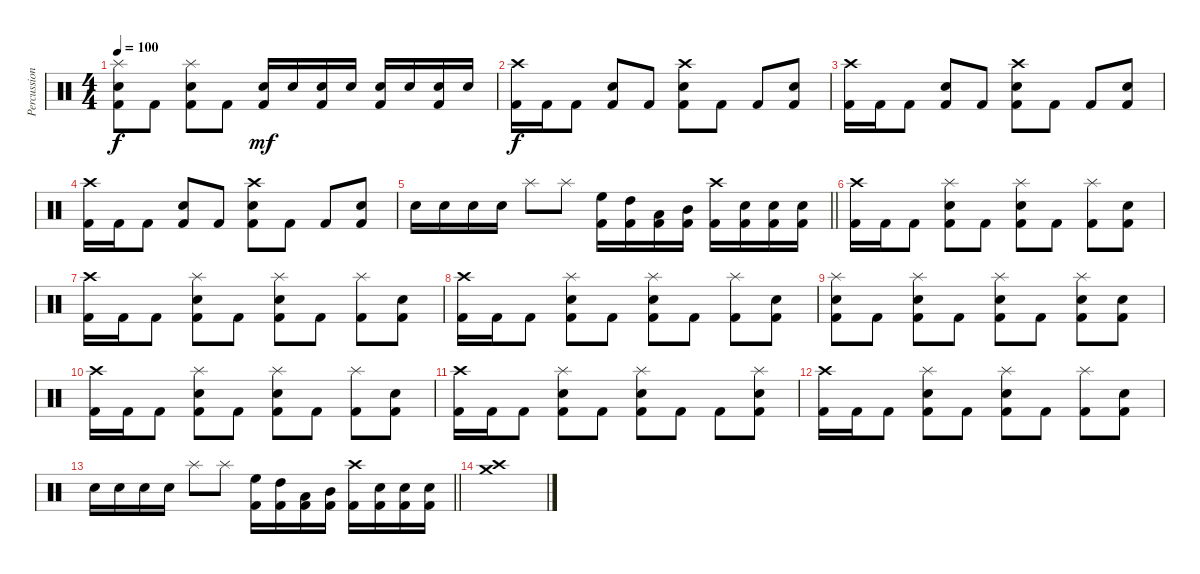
\track ("Percussion" "Percussion") {instrument percussion}
\staff {score}
\articulation defaults
\ts (4 4)
\tempo 100
\clef neutral
\ks c
("Splash (hit)" "Snare (hit) 2" "Kick (hit) 2").8{dy f} "Kick (hit) 2".8 ("Splash (hit)" "Snare (hit) 2" "Kick (hit) 2").8 "Kick (hit) 2".8 ("Snare (hit) 2" "Kick (hit) 2").16{dy mf} "Snare (hit) 2".16 ("Snare (hit) 2" "Kick (hit) 2").16 "Snare (hit) 2".16 ("Snare (hit) 2" "Kick (hit) 2").16 "Snare (hit) 2".16 ("Snare (hit) 2" "Kick (hit) 2").16 "Snare (hit) 2".16 |
("Crash high (hit)" "Kick (hit) 2").16{dy f} "Kick (hit) 2".16 "Kick (hit) 2".8 ("Snare (hit) 2" "Kick (hit) 2").8 "Kick (hit) 2".8 ("Crash high (hit)" "Snare (hit) 2" "Kick (hit) 2").8 "Kick (hit) 2".8 "Kick (hit) 2".8 ("Snare (hit) 2" "Kick (hit) 2").8 |
("Crash high (hit)" "Kick (hit) 2").16 "Kick (hit) 2".16 "Kick (hit) 2".8 ("Snare (hit) 2" "Kick (hit) 2").8 "Kick (hit) 2".8 ("Crash high (hit)" "Snare (hit) 2" "Kick (hit) 2").8 "Kick (hit) 2".8 "Kick (hit) 2".8 ("Snare (hit) 2" "Kick (hit) 2").8 |
("Crash high (hit)" "Kick (hit) 2").16 "Kick (hit) 2".16 "Kick (hit) 2".8 ("Snare (hit) 2" "Kick (hit) 2").8 "Kick (hit) 2".8 ("Crash high (hit)" "Snare (hit) 2" "Kick (hit) 2").8 "Kick (hit) 2".8 "Kick (hit) 2".8 ("Snare (hit) 2" "Kick (hit) 2").8 |
\barLineRight lightlight "Snare (hit) 2".16 "Snare (hit) 2".16 "Snare (hit) 2".16 "Snare (hit) 2".16 "Splash (hit)".8 "Splash (hit)".8
("High Floor Tom (hit)" "Kick (hit) 2").16 ("High Tom (hit)" "Kick (hit) 2").16 ("Low Tom (hit)" "Kick (hit) 2").16 ("Mid Tom (hit)" "Kick (hit) 2").16 ("Crash high (hit)" "Kick (hit) 2").16 ("Snare (hit) 2" "Kick (hit) 2").16 ("Snare (hit) 2" "Kick (hit) 2").16 ("Snare (hit) 2" "Kick (hit) 2").16 |
("Crash high (hit)" "Kick (hit) 2").16 "Kick (hit) 2".16 "Kick (hit) 2".8 ("Splash (hit)" "Snare (hit) 2" "Kick (hit) 2").8 "Kick (hit) 2".8 ("Splash (hit)" "Snare (hit) 2" "Kick (hit) 2").8 "Kick (hit) 2".8 ("Splash (hit)" "Kick (hit) 2").8 ("Snare (hit) 2" "Kick (hit) 2").8 |
("Crash high (hit)" "Kick (hit) 2").16 "Kick (hit) 2".16 "Kick (hit) 2".8 ("Splash (hit)" "Snare (hit) 2" "Kick (hit) 2").8 "Kick (hit) 2".8 ("Splash (hit)" "Snare (hit) 2" "Kick (hit) 2").8 "Kick (hit) 2".8 ("Splash (hit)" "Kick (hit) 2").8 ("Snare (hit) 2" "Kick (hit) 2").8 |
("Crash high (hit)" "Kick (hit) 2").16 "Kick (hit) 2".16 "Kick (hit) 2".8 ("Splash (hit)" "Snare (hit) 2" "Kick (hit) 2").8 "Kick (hit) 2".8 ("Splash (hit)" "Snare (hit) 2" "Kick (hit) 2").8 "Kick (hit) 2".8 ("Splash (hit)" "Kick (hit) 2").8 ("Snare (hit) 2" "Kick (hit) 2").8 |
("Splash (hit)" "Snare (hit) 2" "Kick (hit) 2").8 "Kick (hit) 2".8 ("Splash (hit)" "Snare (hit) 2" "Kick (hit) 2").8 "Kick (hit) 2".8 ("Splash (hit)" "Snare (hit) 2" "Kick (hit) 2").8 "Kick (hit) 2".8 ("Splash (hit)" "Snare (hit) 2" "Kick (hit) 2").8 ("Snare (hit) 2" "Kick (hit) 2").8 |
("Crash high (hit)" "Kick (hit) 2").16 "Kick (hit) 2".16 "Kick (hit) 2".8 ("Splash (hit)" "Snare (hit) 2" "Kick (hit) 2").8 "Kick (hit) 2".8 ("Splash (hit)" "Snare (hit) 2" "Kick (hit) 2").8 "Kick (hit) 2".8 ("Splash (hit)" "Kick (hit) 2").8 ("Snare (hit) 2" "Kick (hit) 2").8 |
("Crash high (hit)" "Kick (hit) 2").16 "Kick (hit) 2".16 "Kick (hit) 2".8 ("Splash (hit)" "Snare (hit) 2" "Kick (hit) 2").8 "Kick (hit) 2".8 ("Splash (hit)" "Snare (hit) 2" "Kick (hit) 2").8 "Kick (hit) 2".8 "Kick (hit) 2".8 ("Splash (hit)" "Snare (hit) 2" "Kick (hit) 2").8 |
("Crash high (hit)" "Kick (hit) 2").16 "Kick (hit) 2".16 "Kick (hit) 2".8 ("Splash (hit)" "Snare (hit) 2" "Kick (hit) 2").8 "Kick (hit) 2".8 ("Splash (hit)" "Snare (hit) 2" "Kick (hit) 2").8 "Kick (hit) 2".8 ("Splash (hit)" "Kick (hit) 2").8 ("Snare (hit) 2" "Kick (hit) 2").8 |
\barLineRight lightlight "Snare (hit) 2".16 "Snare (hit) 2".16 "Snare (hit) 2".16 "Snare (hit) 2".16 "Splash (hit)".8 "Splash (hit)".8
("High Floor Tom (hit)" "Kick (hit) 2").16 ("High Tom (hit)" "Kick (hit) 2").16 ("Low Tom (hit)" "Kick (hit) 2").16 ("Mid Tom (hit)" "Kick (hit) 2").16 ("Crash high (hit)" "Kick (hit) 2").16 ("Snare (hit) 2" "Kick (hit) 2").16 ("Snare (hit) 2" "Kick (hit) 2").16 ("Snare (hit) 2" "Kick (hit) 2").16 |
("Crash high (hit)" "Crash medium (hit)").1
